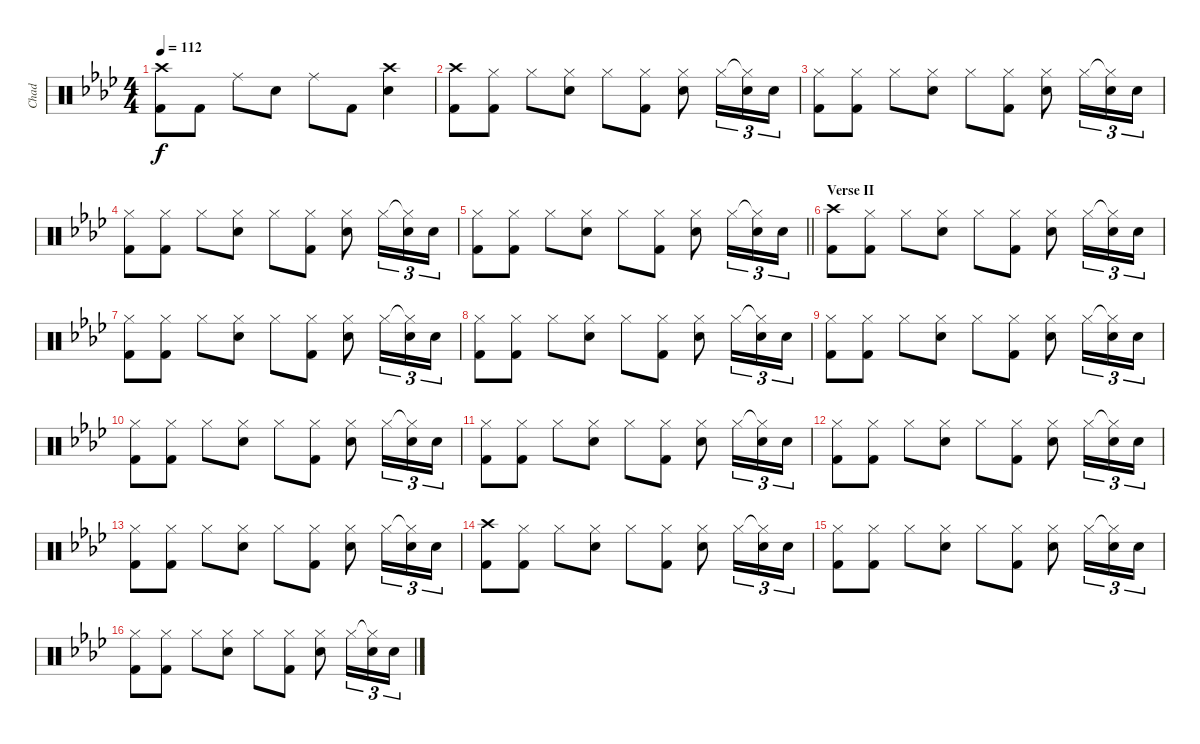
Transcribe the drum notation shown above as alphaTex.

\track ("Chad" "Chad") {instrument percussion}
\staff {score}
\articulation defaults
\ts (4 4)
\tempo 112
\clef neutral
\ks ab
("Crash high (hit)" "Kick (hit) 2").8{dy f} "Kick (hit) 2".8 "Ride (middle)".8 "Snare (hit) 2".8 "Ride (middle)".8 "Kick (hit) 2".8 ("Crash high (hit)" "Snare (hit) 2").4 |
("Crash high (hit)" "Kick (hit) 2").8 ("Hi-Hat (closed)" "Kick (hit) 2").8 "Hi-Hat (closed)".8 ("Hi-Hat (closed)" "Snare (hit) 2").8 "Hi-Hat (closed)".8 ("Hi-Hat (closed)" "Kick (hit) 2").8 ("Hi-Hat (closed)" "Snare (hit) 2").8 "Hi-Hat (closed)".16{tu (3 2)} ("Hi-Hat (closed)"{t} "Snare (hit) 2").16{tu (3 2)} "Snare (hit) 2".16{tu (3 2)} |
("Hi-Hat (closed)" "Kick (hit) 2").8 ("Hi-Hat (closed)" "Kick (hit) 2").8 "Hi-Hat (closed)".8 ("Hi-Hat (closed)" "Snare (hit) 2").8 "Hi-Hat (closed)".8 ("Hi-Hat (closed)" "Kick (hit) 2").8 ("Hi-Hat (closed)" "Snare (hit) 2").8 "Hi-Hat (closed)".16{tu (3 2)} ("Hi-Hat (closed)"{t} "Snare (hit) 2").16{tu (3 2)} "Snare (hit) 2".16{tu (3 2)} |
("Hi-Hat (closed)" "Kick (hit) 2").8 ("Hi-Hat (closed)" "Kick (hit) 2").8 "Hi-Hat (closed)".8 ("Hi-Hat (closed)" "Snare (hit) 2").8 "Hi-Hat (closed)".8 ("Hi-Hat (closed)" "Kick (hit) 2").8 ("Hi-Hat (closed)" "Snare (hit) 2").8 "Hi-Hat (closed)".16{tu (3 2)} ("Hi-Hat (closed)"{t} "Snare (hit) 2").16{tu (3 2)} "Snare (hit) 2".16{tu (3 2)} |
\barLineRight lightlight
("Hi-Hat (closed)" "Kick (hit) 2").8 ("Hi-Hat (closed)" "Kick (hit) 2").8 "Hi-Hat (closed)".8 ("Hi-Hat (closed)" "Snare (hit) 2").8 "Hi-Hat (closed)".8 ("Hi-Hat (closed)" "Kick (hit) 2").8 ("Hi-Hat (closed)" "Snare (hit) 2").8 "Hi-Hat (closed)".16{tu (3 2)} ("Hi-Hat (closed)"{t} "Snare (hit) 2").16{tu (3 2)} "Snare (hit) 2".16{tu (3 2)} |
\section ("" "Verse II")
("Crash high (hit)" "Kick (hit) 2").8 ("Hi-Hat (closed)" "Kick (hit) 2").8 "Hi-Hat (closed)".8 ("Hi-Hat (closed)" "Snare (hit) 2").8 "Hi-Hat (closed)".8 ("Hi-Hat (closed)" "Kick (hit) 2").8 ("Hi-Hat (closed)" "Snare (hit) 2").8 "Hi-Hat (closed)".16{tu (3 2)} ("Hi-Hat (closed)"{t} "Snare (hit) 2").16{tu (3 2)} "Snare (hit) 2".16{tu (3 2)} |
("Hi-Hat (closed)" "Kick (hit) 2").8 ("Hi-Hat (closed)" "Kick (hit) 2").8 "Hi-Hat (closed)".8 ("Hi-Hat (closed)" "Snare (hit) 2").8 "Hi-Hat (closed)".8 ("Hi-Hat (closed)" "Kick (hit) 2").8 ("Hi-Hat (closed)" "Snare (hit) 2").8 "Hi-Hat (closed)".16{tu (3 2)} ("Hi-Hat (closed)"{t} "Snare (hit) 2").16{tu (3 2)} "Snare (hit) 2".16{tu (3 2)} |
("Hi-Hat (closed)" "Kick (hit) 2").8 ("Hi-Hat (closed)" "Kick (hit) 2").8 "Hi-Hat (closed)".8 ("Hi-Hat (closed)" "Snare (hit) 2").8 "Hi-Hat (closed)".8 ("Hi-Hat (closed)" "Kick (hit) 2").8 ("Hi-Hat (closed)" "Snare (hit) 2").8 "Hi-Hat (closed)".16{tu (3 2)} ("Hi-Hat (closed)"{t} "Snare (hit) 2").16{tu (3 2)} "Snare (hit) 2".16{tu (3 2)} |
("Hi-Hat (closed)" "Kick (hit) 2").8 ("Hi-Hat (closed)" "Kick (hit) 2").8 "Hi-Hat (closed)".8 ("Hi-Hat (closed)" "Snare (hit) 2").8 "Hi-Hat (closed)".8 ("Hi-Hat (closed)" "Kick (hit) 2").8 ("Hi-Hat (closed)" "Snare (hit) 2").8 "Hi-Hat (closed)".16{tu (3 2)} ("Hi-Hat (closed)"{t} "Snare (hit) 2").16{tu (3 2)} "Snare (hit) 2".16{tu (3 2)} |
("Hi-Hat (closed)" "Kick (hit) 2").8 ("Hi-Hat (closed)" "Kick (hit) 2").8 "Hi-Hat (closed)".8 ("Hi-Hat (closed)" "Snare (hit) 2").8 "Hi-Hat (closed)".8 ("Hi-Hat (closed)" "Kick (hit) 2").8 ("Hi-Hat (closed)" "Snare (hit) 2").8 "Hi-Hat (closed)".16{tu (3 2)} ("Hi-Hat (closed)"{t} "Snare (hit) 2").16{tu (3 2)} "Snare (hit) 2".16{tu (3 2)} |
("Hi-Hat (closed)" "Kick (hit) 2").8 ("Hi-Hat (closed)" "Kick (hit) 2").8 "Hi-Hat (closed)".8 ("Hi-Hat (closed)" "Snare (hit) 2").8 "Hi-Hat (closed)".8 ("Hi-Hat (closed)" "Kick (hit) 2").8 ("Hi-Hat (closed)" "Snare (hit) 2").8 "Hi-Hat (closed)".16{tu (3 2)} ("Hi-Hat (closed)"{t} "Snare (hit) 2").16{tu (3 2)} "Snare (hit) 2".16{tu (3 2)} |
("Hi-Hat (closed)" "Kick (hit) 2").8 ("Hi-Hat (closed)" "Kick (hit) 2").8 "Hi-Hat (closed)".8 ("Hi-Hat (closed)" "Snare (hit) 2").8 "Hi-Hat (closed)".8 ("Hi-Hat (closed)" "Kick (hit) 2").8 ("Hi-Hat (closed)" "Snare (hit) 2").8 "Hi-Hat (closed)".16{tu (3 2)} ("Hi-Hat (closed)"{t} "Snare (hit) 2").16{tu (3 2)} "Snare (hit) 2".16{tu (3 2)} |
("Hi-Hat (closed)" "Kick (hit) 2").8 ("Hi-Hat (closed)" "Kick (hit) 2").8 "Hi-Hat (closed)".8 ("Hi-Hat (closed)" "Snare (hit) 2").8 "Hi-Hat (closed)".8 ("Hi-Hat (closed)" "Kick (hit) 2").8 ("Hi-Hat (closed)" "Snare (hit) 2").8 "Hi-Hat (closed)".16{tu (3 2)} ("Hi-Hat (closed)"{t} "Snare (hit) 2").16{tu (3 2)} "Snare (hit) 2".16{tu (3 2)} |
("Crash high (hit)" "Kick (hit) 2").8 ("Hi-Hat (closed)" "Kick (hit) 2").8 "Hi-Hat (closed)".8 ("Hi-Hat (closed)" "Snare (hit) 2").8 "Hi-Hat (closed)".8 ("Hi-Hat (closed)" "Kick (hit) 2").8 ("Hi-Hat (closed)" "Snare (hit) 2").8 "Hi-Hat (closed)".16{tu (3 2)} ("Hi-Hat (closed)"{t} "Snare (hit) 2").16{tu (3 2)} "Snare (hit) 2".16{tu (3 2)} |
("Hi-Hat (closed)" "Kick (hit) 2").8 ("Hi-Hat (closed)" "Kick (hit) 2").8 "Hi-Hat (closed)".8 ("Hi-Hat (closed)" "Snare (hit) 2").8 "Hi-Hat (closed)".8 ("Hi-Hat (closed)" "Kick (hit) 2").8 ("Hi-Hat (closed)" "Snare (hit) 2").8 "Hi-Hat (closed)".16{tu (3 2)} ("Hi-Hat (closed)"{t} "Snare (hit) 2").16{tu (3 2)} "Snare (hit) 2".16{tu (3 2)} |
("Hi-Hat (closed)" "Kick (hit) 2").8 ("Hi-Hat (closed)" "Kick (hit) 2").8 "Hi-Hat (closed)".8 ("Hi-Hat (closed)" "Snare (hit) 2").8 "Hi-Hat (closed)".8 ("Hi-Hat (closed)" "Kick (hit) 2").8 ("Hi-Hat (closed)" "Snare (hit) 2").8 "Hi-Hat (closed)".16{tu (3 2)} ("Hi-Hat (closed)"{t} "Snare (hit) 2").16{tu (3 2)} "Snare (hit) 2".16{tu (3 2)}
